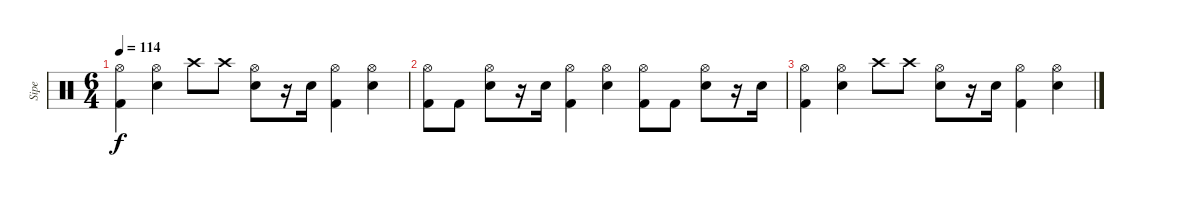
\track ("Sipe" "Sipe") {instrument percussion}
\staff {score}
\articulation defaults
\ts (6 4)
\tempo 114
\clef neutral
\ks c
("Hi-Hat (open)" "Kick (hit) 2").4{dy f} ("Hi-Hat (open)" "Snare (hit) 2").4 "Crash high (hit)".8 "Crash high (hit)".8 ("Hi-Hat (open)" "Snare (hit) 2").8 r.16 "Snare (hit) 2".16 ("Hi-Hat (open)" "Kick (hit) 2").4 ("Hi-Hat (open)" "Snare (hit) 2").4 |
("Hi-Hat (open)" "Kick (hit) 2").8 "Kick (hit) 2".8 ("Hi-Hat (open)" "Snare (hit) 2").8 r.16 "Snare (hit) 2".16 ("Hi-Hat (open)" "Kick (hit) 2").4 ("Hi-Hat (open)" "Snare (hit) 2").4 ("Hi-Hat (open)" "Kick (hit) 2").8 "Kick (hit) 2".8 ("Hi-Hat (open)" "Snare (hit) 2").8 r.16 "Snare (hit) 2".16 |
("Hi-Hat (open)" "Kick (hit) 2").4 ("Hi-Hat (open)" "Snare (hit) 2").4 "Crash high (hit)".8 "Crash high (hit)".8 ("Hi-Hat (open)" "Snare (hit) 2").8 r.16 "Snare (hit) 2".16 ("Hi-Hat (open)" "Kick (hit) 2").4 ("Hi-Hat (open)" "Snare (hit) 2").4
